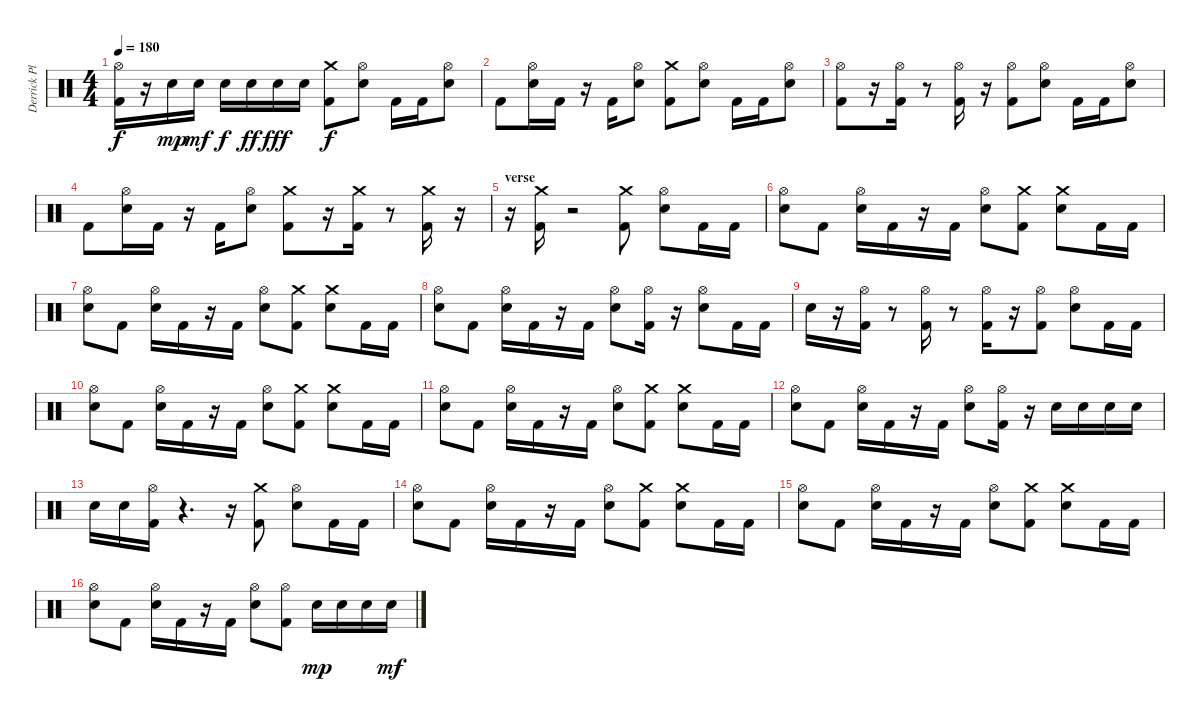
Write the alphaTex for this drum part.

\track ("Derrick Plourde" "Derrick Pl") {instrument percussion}
\staff {score}
\articulation defaults
\ts (4 4)
\tempo 180
\clef neutral
\ks c
("Hi-Hat (open)" "Kick (hit) 2").16{dy f} r.16 "Electric Snare (hit)".16{dy mp} "Electric Snare (hit)".16{dy mf} "Electric Snare (hit)".16{dy f} "Electric Snare (hit)".16{dy ff} "Electric Snare (hit)".16{dy fff} "Electric Snare (hit)".16 ("Crash medium (hit)" "Kick (hit) 2").8{dy f} ("Hi-Hat (open)" "Electric Snare (hit)").8 "Kick (hit) 2".16 "Kick (hit) 2".16 ("Hi-Hat (open)" "Electric Snare (hit)").8 |
"Kick (hit) 2".8 ("Hi-Hat (open)" "Electric Snare (hit)").16 "Kick (hit) 2".16 r.16 "Kick (hit) 2".16 ("Hi-Hat (open)" "Electric Snare (hit)").8 ("Crash medium (hit)" "Kick (hit) 2").8 ("Hi-Hat (open)" "Electric Snare (hit)").8 "Kick (hit) 2".16 "Kick (hit) 2".16 ("Hi-Hat (open)" "Electric Snare (hit)").8 |
("Hi-Hat (open)" "Kick (hit) 2").8 r.16 ("Hi-Hat (open)" "Kick (hit) 2").16 r.8 ("Hi-Hat (open)" "Kick (hit) 2").16 r.16 ("Hi-Hat (open)" "Kick (hit) 2").8 ("Hi-Hat (open)" "Electric Snare (hit)").8 "Kick (hit) 2".16 "Kick (hit) 2".16 ("Hi-Hat (open)" "Electric Snare (hit)").8 |
"Kick (hit) 2".8 ("Hi-Hat (open)" "Electric Snare (hit)").16 "Kick (hit) 2".16 r.16 "Kick (hit) 2".16 ("Hi-Hat (open)" "Electric Snare (hit)").8 ("Crash medium (hit)" "Kick (hit) 2").8 r.16 ("Crash medium (hit)" "Kick (hit) 2").16 r.8 ("Crash medium (hit)" "Kick (hit) 2").16 r.16 |
\section ("" "verse")
r.16 ("Crash medium (hit)" "Kick (hit) 2").16 r.2 ("Crash medium (hit)" "Kick (hit) 2").8 ("Hi-Hat (open)" "Electric Snare (hit)").8 "Kick (hit) 2".16 "Kick (hit) 2".16 |
("Hi-Hat (open)" "Electric Snare (hit)").8 "Kick (hit) 2".8 ("Hi-Hat (open)" "Electric Snare (hit)").16 "Kick (hit) 2".16 r.16 "Kick (hit) 2".16 ("Hi-Hat (open)" "Electric Snare (hit)").8 ("Crash medium (hit)" "Kick (hit) 2").8 ("Crash medium (hit)" "Electric Snare (hit)").8 "Kick (hit) 2".16 "Kick (hit) 2".16 |
("Hi-Hat (open)" "Electric Snare (hit)").8 "Kick (hit) 2".8 ("Hi-Hat (open)" "Electric Snare (hit)").16 "Kick (hit) 2".16 r.16 "Kick (hit) 2".16 ("Hi-Hat (open)" "Electric Snare (hit)").8 ("Crash medium (hit)" "Kick (hit) 2").8 ("Crash medium (hit)" "Electric Snare (hit)").8 "Kick (hit) 2".16 "Kick (hit) 2".16 |
("Hi-Hat (open)" "Electric Snare (hit)").8 "Kick (hit) 2".8 ("Hi-Hat (open)" "Electric Snare (hit)").16 "Kick (hit) 2".16 r.16 "Kick (hit) 2".16 ("Hi-Hat (open)" "Electric Snare (hit)").8 ("Hi-Hat (open)" "Kick (hit) 2").16 r.16 ("Hi-Hat (open)" "Electric Snare (hit)").8 "Kick (hit) 2".16 "Kick (hit) 2".16 |
"Electric Snare (hit)".16 r.16 ("Hi-Hat (open)" "Kick (hit) 2").16 r.8 ("Hi-Hat (open)" "Kick (hit) 2").16 r.8 ("Hi-Hat (open)" "Kick (hit) 2").16 r.16 ("Hi-Hat (open)" "Kick (hit) 2").8 ("Hi-Hat (open)" "Electric Snare (hit)").8 "Kick (hit) 2".16 "Kick (hit) 2".16 |
("Hi-Hat (open)" "Electric Snare (hit)").8 "Kick (hit) 2".8 ("Hi-Hat (open)" "Electric Snare (hit)").16 "Kick (hit) 2".16 r.16 "Kick (hit) 2".16 ("Hi-Hat (open)" "Electric Snare (hit)").8 ("Crash medium (hit)" "Kick (hit) 2").8 ("Crash medium (hit)" "Electric Snare (hit)").8 "Kick (hit) 2".16 "Kick (hit) 2".16 |
("Hi-Hat (open)" "Electric Snare (hit)").8 "Kick (hit) 2".8 ("Hi-Hat (open)" "Electric Snare (hit)").16 "Kick (hit) 2".16 r.16 "Kick (hit) 2".16 ("Hi-Hat (open)" "Electric Snare (hit)").8 ("Crash medium (hit)" "Kick (hit) 2").8 ("Crash medium (hit)" "Electric Snare (hit)").8 "Kick (hit) 2".16 "Kick (hit) 2".16 |
("Hi-Hat (open)" "Electric Snare (hit)").8 "Kick (hit) 2".8 ("Hi-Hat (open)" "Electric Snare (hit)").16 "Kick (hit) 2".16 r.16 "Kick (hit) 2".16 ("Hi-Hat (open)" "Electric Snare (hit)").8 ("Hi-Hat (open)" "Kick (hit) 2").16 r.16 "Electric Snare (hit)".16 "Electric Snare (hit)".16 "Electric Snare (hit)".16 "Electric Snare (hit)".16 |
"Electric Snare (hit)".16 "Electric Snare (hit)".16 ("Hi-Hat (open)" "Kick (hit) 2").16 r.4{d} r.16 ("Crash medium (hit)" "Kick (hit) 2").8 ("Hi-Hat (open)" "Electric Snare (hit)").8 "Kick (hit) 2".16 "Kick (hit) 2".16 |
("Hi-Hat (open)" "Electric Snare (hit)").8 "Kick (hit) 2".8 ("Hi-Hat (open)" "Electric Snare (hit)").16 "Kick (hit) 2".16 r.16 "Kick (hit) 2".16 ("Hi-Hat (open)" "Electric Snare (hit)").8 ("Crash medium (hit)" "Kick (hit) 2").8 ("Crash medium (hit)" "Electric Snare (hit)").8 "Kick (hit) 2".16 "Kick (hit) 2".16 |
("Hi-Hat (open)" "Electric Snare (hit)").8 "Kick (hit) 2".8 ("Hi-Hat (open)" "Electric Snare (hit)").16 "Kick (hit) 2".16 r.16 "Kick (hit) 2".16 ("Hi-Hat (open)" "Electric Snare (hit)").8 ("Crash medium (hit)" "Kick (hit) 2").8 ("Crash medium (hit)" "Electric Snare (hit)").8 "Kick (hit) 2".16 "Kick (hit) 2".16 |
("Hi-Hat (open)" "Electric Snare (hit)").8 "Kick (hit) 2".8 ("Hi-Hat (open)" "Electric Snare (hit)").16 "Kick (hit) 2".16 r.16 "Kick (hit) 2".16 ("Hi-Hat (open)" "Electric Snare (hit)").8 ("Hi-Hat (open)" "Kick (hit) 2").8 "Electric Snare (hit)".16{dy mp} "Electric Snare (hit)".16 "Electric Snare (hit)".16 "Electric Snare (hit)".16{dy mf}
